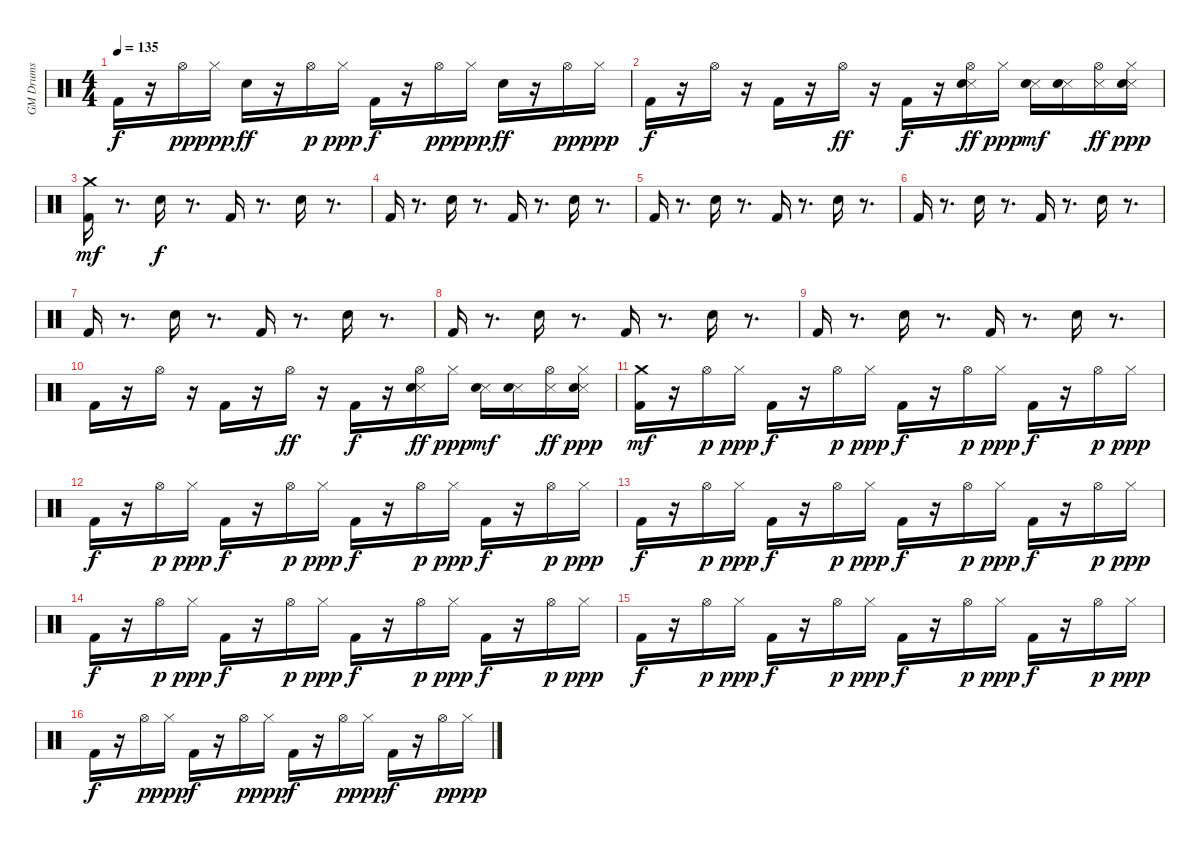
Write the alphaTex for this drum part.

\track ("GM Drums" "GM Drums") {instrument percussion}
\staff {score}
\articulation defaults
\ts (4 4)
\tempo 135
\clef neutral
\ks c "Kick (hit) 2".16{dy f}
r.16 "Hi-Hat (open)".16{dy pp} "Hi-Hat (closed)".16{dy ppp} "Snare (hit) 2".16{dy ff} r.16 "Hi-Hat (open)".16{dy p} "Hi-Hat (closed)".16{dy ppp} "Kick (hit) 2".16{dy f} r.16 "Hi-Hat (open)".16{dy pp} "Hi-Hat (closed)".16{dy ppp} "Snare (hit) 2".16{dy ff} r.16 "Hi-Hat (open)".16{dy pp} "Hi-Hat (closed)".16{dy ppp} |
"Kick (hit) 2".16{dy f} r.16 "Hi-Hat (open)".16 r.16 "Kick (hit) 2".16 r.16 "Hi-Hat (open)".16{dy ff} r.16 "Kick (hit) 2".16{dy f} r.16 ("Metronome (hit)" "Electric Snare (hit)" "Hi-Hat (open)").16{dy ff} "Hi-Hat (closed)".16{dy ppp} ("Metronome (hit)" "Electric Snare (hit)").16{dy mf} ("Metronome (hit)" "Electric Snare (hit)").16 ("Metronome (hit)" "Hi-Hat (open)").16{dy ff} ("Metronome (hit)" "Electric Snare (hit)" "Hi-Hat (closed)").16{dy ppp} |
("Crash medium (hit)" "Kick (hit) 2").16{dy mf} r.8{d} "Snare (hit) 2".16{dy f} r.8{d} "Kick (hit) 2".16 r.8{d} "Snare (hit) 2".16 r.8{d} |
"Kick (hit) 2".16 r.8{d} "Snare (hit) 2".16 r.8{d} "Kick (hit) 2".16 r.8{d} "Snare (hit) 2".16 r.8{d} |
"Kick (hit) 2".16 r.8{d} "Snare (hit) 2".16 r.8{d} "Kick (hit) 2".16 r.8{d} "Snare (hit) 2".16 r.8{d} |
"Kick (hit) 2".16 r.8{d} "Snare (hit) 2".16 r.8{d} "Kick (hit) 2".16 r.8{d} "Snare (hit) 2".16 r.8{d} |
"Kick (hit) 2".16 r.8{d} "Snare (hit) 2".16 r.8{d} "Kick (hit) 2".16 r.8{d} "Snare (hit) 2".16 r.8{d} |
"Kick (hit) 2".16 r.8{d} "Snare (hit) 2".16 r.8{d} "Kick (hit) 2".16 r.8{d} "Snare (hit) 2".16 r.8{d} |
"Kick (hit) 2".16 r.8{d} "Snare (hit) 2".16 r.8{d} "Kick (hit) 2".16 r.8{d} "Snare (hit) 2".16 r.8{d} |
"Kick (hit) 2".16 r.16 "Hi-Hat (open)".16 r.16 "Kick (hit) 2".16 r.16 "Hi-Hat (open)".16{dy ff} r.16 "Kick (hit) 2".16{dy f} r.16 ("Metronome (hit)" "Electric Snare (hit)" "Hi-Hat (open)").16{dy ff} "Hi-Hat (closed)".16{dy ppp} ("Metronome (hit)" "Electric Snare (hit)").16{dy mf} ("Metronome (hit)" "Electric Snare (hit)").16 ("Metronome (hit)" "Hi-Hat (open)").16{dy ff} ("Metronome (hit)" "Electric Snare (hit)" "Hi-Hat (closed)").16{dy ppp} |
("Kick (hit) 2" "Crash medium (hit)").16{dy mf} r.16 "Hi-Hat (open)".16{dy p} "Hi-Hat (closed)".16{dy ppp} "Kick (hit) 2".16{dy f} r.16 "Hi-Hat (open)".16{dy p} "Hi-Hat (closed)".16{dy ppp} "Kick (hit) 2".16{dy f} r.16 "Hi-Hat (open)".16{dy p} "Hi-Hat (closed)".16{dy ppp} "Kick (hit) 2".16{dy f} r.16 "Hi-Hat (open)".16{dy p} "Hi-Hat (closed)".16{dy ppp} |
"Kick (hit) 2".16{dy f} r.16 "Hi-Hat (open)".16{dy p} "Hi-Hat (closed)".16{dy ppp} "Kick (hit) 2".16{dy f} r.16 "Hi-Hat (open)".16{dy p} "Hi-Hat (closed)".16{dy ppp} "Kick (hit) 2".16{dy f} r.16 "Hi-Hat (open)".16{dy p} "Hi-Hat (closed)".16{dy ppp} "Kick (hit) 2".16{dy f} r.16 "Hi-Hat (open)".16{dy p} "Hi-Hat (closed)".16{dy ppp} |
"Kick (hit) 2".16{dy f} r.16 "Hi-Hat (open)".16{dy p} "Hi-Hat (closed)".16{dy ppp} "Kick (hit) 2".16{dy f} r.16 "Hi-Hat (open)".16{dy p} "Hi-Hat (closed)".16{dy ppp} "Kick (hit) 2".16{dy f} r.16 "Hi-Hat (open)".16{dy p} "Hi-Hat (closed)".16{dy ppp} "Kick (hit) 2".16{dy f} r.16 "Hi-Hat (open)".16{dy p} "Hi-Hat (closed)".16{dy ppp} |
"Kick (hit) 2".16{dy f} r.16 "Hi-Hat (open)".16{dy p} "Hi-Hat (closed)".16{dy ppp} "Kick (hit) 2".16{dy f} r.16 "Hi-Hat (open)".16{dy p} "Hi-Hat (closed)".16{dy ppp} "Kick (hit) 2".16{dy f} r.16 "Hi-Hat (open)".16{dy p} "Hi-Hat (closed)".16{dy ppp} "Kick (hit) 2".16{dy f} r.16 "Hi-Hat (open)".16{dy p} "Hi-Hat (closed)".16{dy ppp} |
"Kick (hit) 2".16{dy f} r.16 "Hi-Hat (open)".16{dy p} "Hi-Hat (closed)".16{dy ppp} "Kick (hit) 2".16{dy f} r.16 "Hi-Hat (open)".16{dy p} "Hi-Hat (closed)".16{dy ppp} "Kick (hit) 2".16{dy f} r.16 "Hi-Hat (open)".16{dy p} "Hi-Hat (closed)".16{dy ppp} "Kick (hit) 2".16{dy f} r.16 "Hi-Hat (open)".16{dy p} "Hi-Hat (closed)".16{dy ppp} |
"Kick (hit) 2".16{dy f} r.16 "Hi-Hat (open)".16{dy p} "Hi-Hat (closed)".16{dy ppp} "Kick (hit) 2".16{dy f} r.16 "Hi-Hat (open)".16{dy p} "Hi-Hat (closed)".16{dy ppp} "Kick (hit) 2".16{dy f} r.16 "Hi-Hat (open)".16{dy p} "Hi-Hat (closed)".16{dy ppp} "Kick (hit) 2".16{dy f} r.16 "Hi-Hat (open)".16{dy p} "Hi-Hat (closed)".16{dy ppp}
